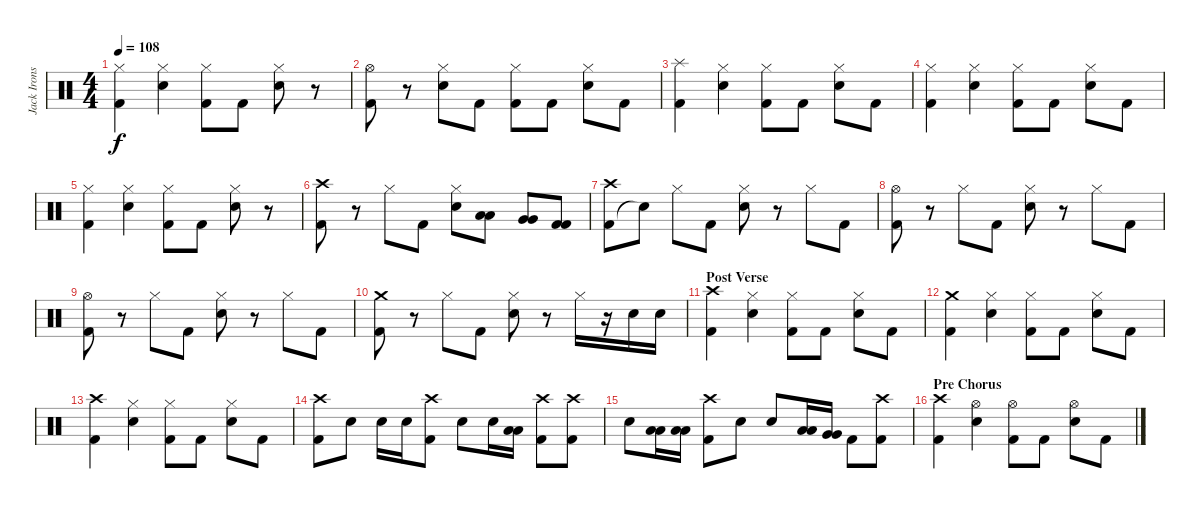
\track ("Jack Irons" "Jack Irons") {instrument percussion}
\staff {score}
\articulation defaults
\ts (4 4)
\tempo 108
\clef neutral
\ks c
("Kick (hit) 2" "Hi-Hat (closed)").4{dy f} ("Electric Snare (hit)" "Hi-Hat (closed)").4 ("Kick (hit) 2" "Hi-Hat (closed)").8 "Kick (hit) 2".8 ("Electric Snare (hit)" "Hi-Hat (closed)").8 r.8 |
("Kick (hit) 2" "Hi-Hat (open)").8 r.8 ("Electric Snare (hit)" "Hi-Hat (closed)").8 "Kick (hit) 2".8 ("Kick (hit) 2" "Hi-Hat (closed)").8 "Kick (hit) 2".8 ("Electric Snare (hit)" "Hi-Hat (closed)").8 "Kick (hit) 2".8 |
("Splash (hit)" "Kick (hit) 2").4 ("Electric Snare (hit)" "Hi-Hat (closed)").4 ("Kick (hit) 2" "Hi-Hat (closed)").8 "Kick (hit) 2".8 ("Electric Snare (hit)" "Hi-Hat (closed)").8 "Kick (hit) 2".8 |
("Kick (hit) 2" "Hi-Hat (closed)").4 ("Electric Snare (hit)" "Hi-Hat (closed)").4 ("Kick (hit) 2" "Hi-Hat (closed)").8 "Kick (hit) 2".8 ("Electric Snare (hit)" "Hi-Hat (closed)").8 "Kick (hit) 2".8 |
("Kick (hit) 2" "Hi-Hat (closed)").4 ("Electric Snare (hit)" "Hi-Hat (closed)").4 ("Kick (hit) 2" "Hi-Hat (closed)").8 "Kick (hit) 2".8 ("Electric Snare (hit)" "Hi-Hat (closed)").8 r.8 |
("Kick (hit) 2" "Crash high (hit)").8 r.8 "Hi-Hat (closed)".8 "Kick (hit) 2".8 ("Electric Snare (hit)" "Hi-Hat (closed)").8 ("Low Tom (hit)" "Low Tom (hit)").8 ("Very Low Tom (hit)" "Very Low Tom (hit)").8 ("Kick (hit) 2" "Kick (hit) 2").8 |
\section ("" "")
("Kick (hit) 2" "Crash high (hit)").8 "Snare (hit)"{t}.8 "Hi-Hat (closed)".8 "Kick (hit) 2".8 ("Electric Snare (hit)" "Hi-Hat (closed)").8 r.8 "Hi-Hat (closed)".8 "Kick (hit) 2".8 |
("Kick (hit) 2" "Hi-Hat (open)").8 r.8 "Hi-Hat (closed)".8 "Kick (hit) 2".8 ("Electric Snare (hit)" "Hi-Hat (closed)").8 r.8 "Hi-Hat (closed)".8 "Kick (hit) 2".8 |
("Kick (hit) 2" "Hi-Hat (open)").8 r.8 "Hi-Hat (closed)".8 "Kick (hit) 2".8 ("Electric Snare (hit)" "Hi-Hat (closed)").8 r.8 "Hi-Hat (closed)".8 "Kick (hit) 2".8 |
("Kick (hit) 2" "Crash medium (hit)").8 r.8 "Hi-Hat (closed)".8 "Kick (hit) 2".8 ("Electric Snare (hit)" "Hi-Hat (closed)").8 r.8 "Hi-Hat (closed)".16 r.16 "Electric Snare (hit)".16 "Electric Snare (hit)".16 |
\section ("" "Post Verse")
("Kick (hit) 2" "Crash high (hit)").4 ("Electric Snare (hit)" "Hi-Hat (closed)").4 ("Kick (hit) 2" "Hi-Hat (closed)").8 "Kick (hit) 2".8 ("Electric Snare (hit)" "Hi-Hat (closed)").8 "Kick (hit) 2".8 |
("Kick (hit) 2" "Crash medium (hit)").4 ("Electric Snare (hit)" "Hi-Hat (closed)").4 ("Kick (hit) 2" "Hi-Hat (closed)").8 "Kick (hit) 2".8 ("Electric Snare (hit)" "Hi-Hat (closed)").8 "Kick (hit) 2".8 |
("Kick (hit) 2" "Crash high (hit)").4 ("Electric Snare (hit)" "Hi-Hat (closed)").4 ("Kick (hit) 2" "Hi-Hat (closed)").8 "Kick (hit) 2".8 ("Electric Snare (hit)" "Hi-Hat (closed)").8 "Kick (hit) 2".8 |
("Kick (hit) 2" "Crash high (hit)").8 "Electric Snare (hit)".8 "Electric Snare (hit)".16 "Electric Snare (hit)".16 ("Kick (hit) 2" "Crash high (hit)").8 "Electric Snare (hit)".8 "Electric Snare (hit)".16 ("Low Tom (hit)" "Low Tom (hit)").16 ("Kick (hit) 2" "Crash high (hit)").8 ("Kick (hit) 2" "Crash high (hit)").8 |
"Electric Snare (hit)".8 ("Low Tom (hit)" "Low Tom (hit)").16 ("Low Tom (hit)" "Low Tom (hit)").16 ("Kick (hit) 2" "Crash high (hit)").8 "Electric Snare (hit)".8 "Electric Snare (hit)".8 ("Low Tom (hit)" "Low Tom (hit)").16 ("Very Low Tom (hit)" "Very Low Tom (hit)").16 "Kick (hit) 2".8 ("Kick (hit) 2" "Crash high (hit)").8 |
\section ("" "Pre Chorus")
("Kick (hit) 2" "Crash high (hit)").4 ("Electric Snare (hit)" "Hi-Hat (open)").4 ("Kick (hit) 2" "Hi-Hat (open)").8 "Kick (hit) 2".8 ("Electric Snare (hit)" "Hi-Hat (open)").8 "Kick (hit) 2".8
